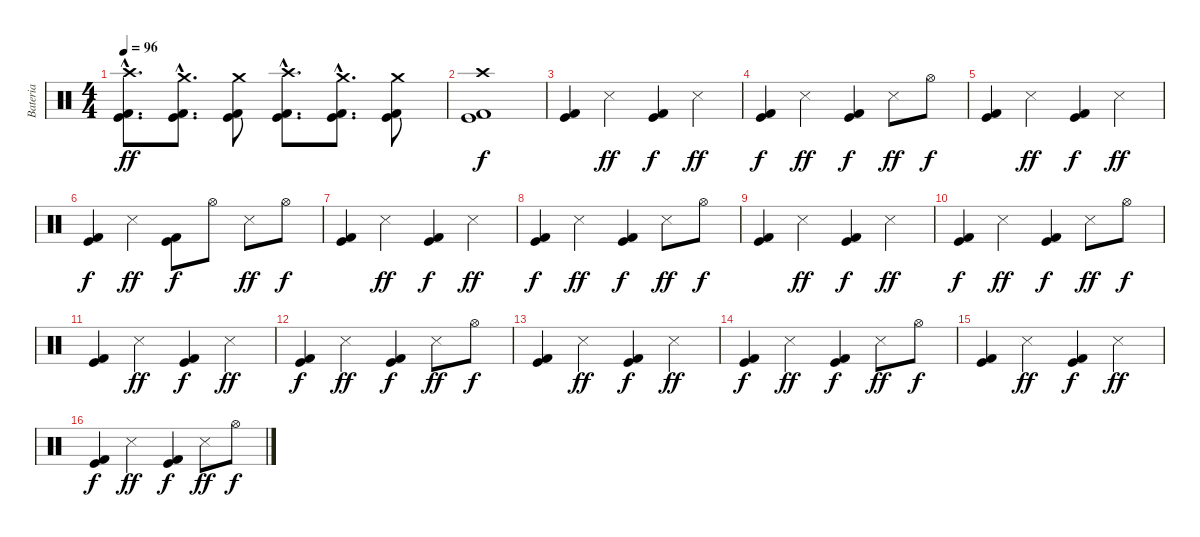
\track ("Bateria" "Bateria") {instrument percussion}
\staff {score}
\articulation defaults
\ts (4 4)
\tempo 96
\clef neutral
\ks c
("Crash high (hit)"{hac} "Kick (hit) 2"{hac} "Kick (hit)"{hac}).8{d dy ff} ("Crash medium (hit)"{hac} "Kick (hit) 2"{hac} "Kick (hit)"{hac}).8{d} ("Crash medium (hit)" "Kick (hit) 2" "Kick (hit)").8 ("Crash high (hit)"{hac} "Kick (hit) 2"{hac} "Kick (hit)"{hac}).8{d} ("Crash medium (hit)"{hac} "Kick (hit) 2"{hac} "Kick (hit)"{hac}).8{d} ("Crash medium (hit)" "Kick (hit) 2" "Kick (hit)").8 |
("Crash high (hit)" "Kick (hit) 2" "Kick (hit)").1{dy f} |
("Kick (hit) 2" "Kick (hit)").4 "Snare (side stick) 3".4{dy ff} ("Kick (hit) 2" "Kick (hit)").4{dy f} "Snare (side stick) 3".4{dy ff} |
("Kick (hit) 2" "Kick (hit)").4{dy f} "Snare (side stick) 3".4{dy ff} ("Kick (hit) 2" "Kick (hit)").4{dy f} "Snare (side stick) 3".8{dy ff} "Hi-Hat (open)".8{dy f} |
("Kick (hit) 2" "Kick (hit)").4 "Snare (side stick) 3".4{dy ff} ("Kick (hit) 2" "Kick (hit)").4{dy f} "Snare (side stick) 3".4{dy ff} |
("Kick (hit) 2" "Kick (hit)").4{dy f} "Snare (side stick) 3".4{dy ff} ("Kick (hit) 2" "Kick (hit)").8{dy f} "Hi-Hat (open)".8 "Snare (side stick) 3".8{dy ff} "Hi-Hat (open)".8{dy f} |
("Kick (hit) 2" "Kick (hit)").4 "Snare (side stick) 3".4{dy ff} ("Kick (hit) 2" "Kick (hit)").4{dy f} "Snare (side stick) 3".4{dy ff} |
("Kick (hit) 2" "Kick (hit)").4{dy f} "Snare (side stick) 3".4{dy ff} ("Kick (hit) 2" "Kick (hit)").4{dy f} "Snare (side stick) 3".8{dy ff} "Hi-Hat (open)".8{dy f} |
("Kick (hit) 2" "Kick (hit)").4 "Snare (side stick) 3".4{dy ff} ("Kick (hit) 2" "Kick (hit)").4{dy f} "Snare (side stick) 3".4{dy ff} |
("Kick (hit) 2" "Kick (hit)").4{dy f} "Snare (side stick) 3".4{dy ff} ("Kick (hit) 2" "Kick (hit)").4{dy f} "Snare (side stick) 3".8{dy ff} "Hi-Hat (open)".8{dy f} |
("Kick (hit) 2" "Kick (hit)").4 "Snare (side stick) 3".4{dy ff} ("Kick (hit) 2" "Kick (hit)").4{dy f} "Snare (side stick) 3".4{dy ff} |
("Kick (hit) 2" "Kick (hit)").4{dy f} "Snare (side stick) 3".4{dy ff} ("Kick (hit) 2" "Kick (hit)").4{dy f} "Snare (side stick) 3".8{dy ff} "Hi-Hat (open)".8{dy f} |
("Kick (hit) 2" "Kick (hit)").4 "Snare (side stick) 3".4{dy ff} ("Kick (hit) 2" "Kick (hit)").4{dy f} "Snare (side stick) 3".4{dy ff} |
("Kick (hit) 2" "Kick (hit)").4{dy f} "Snare (side stick) 3".4{dy ff} ("Kick (hit) 2" "Kick (hit)").4{dy f} "Snare (side stick) 3".8{dy ff} "Hi-Hat (open)".8{dy f} |
("Kick (hit) 2" "Kick (hit)").4 "Snare (side stick) 3".4{dy ff} ("Kick (hit) 2" "Kick (hit)").4{dy f} "Snare (side stick) 3".4{dy ff} |
("Kick (hit) 2" "Kick (hit)").4{dy f} "Snare (side stick) 3".4{dy ff} ("Kick (hit) 2" "Kick (hit)").4{dy f} "Snare (side stick) 3".8{dy ff} "Hi-Hat (open)".8{dy f}
